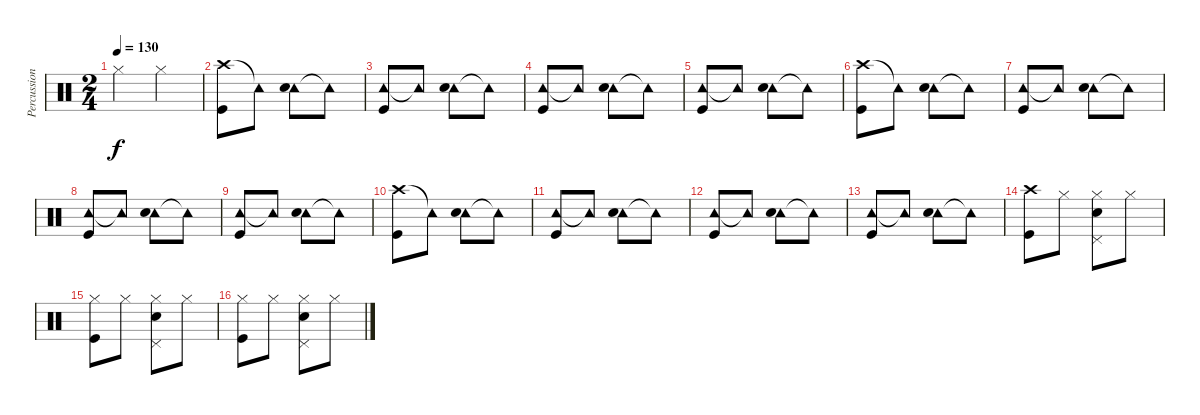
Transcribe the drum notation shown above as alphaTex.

\track ("Percussioni" "Percussion") {instrument percussion}
\staff {score}
\articulation defaults
\ts (2 4)
\tempo 130
\clef neutral
\ks c "Hi-Hat (closed)".4{dy f} "Hi-Hat (closed)".4
|
("Crash high (hit)" "Kick (hit)").8 "Tambourine (hit)"{t}.8 ("Tambourine (hit)" "Electric Snare (hit)").8 "Tambourine (hit)"{t}.8 |
("Tambourine (hit)" "Kick (hit)").8 "Tambourine (hit)"{t}.8 ("Tambourine (hit)" "Electric Snare (hit)").8 "Tambourine (hit)"{t}.8 |
("Tambourine (hit)" "Kick (hit)").8 "Tambourine (hit)"{t}.8 ("Tambourine (hit)" "Electric Snare (hit)").8 "Tambourine (hit)"{t}.8 |
("Tambourine (hit)" "Kick (hit)").8 "Tambourine (hit)"{t}.8 ("Tambourine (hit)" "Electric Snare (hit)").8 "Tambourine (hit)"{t}.8 |
("Crash high (hit)" "Kick (hit)").8 "Tambourine (hit)"{t}.8 ("Tambourine (hit)" "Electric Snare (hit)").8 "Tambourine (hit)"{t}.8 |
("Tambourine (hit)" "Kick (hit)").8 "Tambourine (hit)"{t}.8 ("Tambourine (hit)" "Electric Snare (hit)").8 "Tambourine (hit)"{t}.8 |
("Tambourine (hit)" "Kick (hit)").8 "Tambourine (hit)"{t}.8 ("Tambourine (hit)" "Electric Snare (hit)").8 "Tambourine (hit)"{t}.8 |
("Tambourine (hit)" "Kick (hit)").8 "Tambourine (hit)"{t}.8 ("Tambourine (hit)" "Electric Snare (hit)").8 "Tambourine (hit)"{t}.8 |
("Crash high (hit)" "Kick (hit)").8 "Tambourine (hit)"{t}.8 ("Tambourine (hit)" "Electric Snare (hit)").8 "Tambourine (hit)"{t}.8 |
("Tambourine (hit)" "Kick (hit)").8 "Tambourine (hit)"{t}.8 ("Tambourine (hit)" "Electric Snare (hit)").8 "Tambourine (hit)"{t}.8 |
("Tambourine (hit)" "Kick (hit)").8 "Tambourine (hit)"{t}.8 ("Tambourine (hit)" "Electric Snare (hit)").8 "Tambourine (hit)"{t}.8 |
("Tambourine (hit)" "Kick (hit)").8 "Tambourine (hit)"{t}.8 ("Tambourine (hit)" "Snare (hit) 2").8 "Tambourine (hit)"{t}.8 |
("Crash high (hit)" "Kick (hit)").8 "Hi-Hat (closed)".8 ("Hi-Hat (closed)" "Pedal Hi-Hat (hit)" "Snare (hit) 2").8 "Hi-Hat (closed)".8 |
("Hi-Hat (closed)" "Kick (hit)").8 "Hi-Hat (closed)".8 ("Hi-Hat (closed)" "Pedal Hi-Hat (hit)" "Snare (hit) 2").8 "Hi-Hat (closed)".8 |
("Hi-Hat (closed)" "Kick (hit)").8 "Hi-Hat (closed)".8 ("Hi-Hat (closed)" "Pedal Hi-Hat (hit)" "Snare (hit) 2").8 "Hi-Hat (closed)".8
